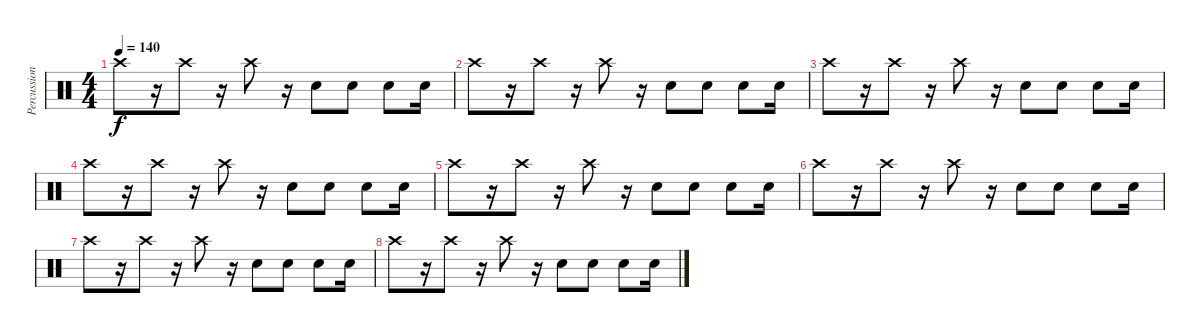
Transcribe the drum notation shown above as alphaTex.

\track ("Percussion" "Percussion") {instrument percussion}
\staff {score}
\articulation defaults
\ts (4 4)
\tempo 140
\clef neutral
\ks c "Crash high (hit)".8{dy f}
r.16 "Crash high (hit)".8 r.16 "Crash high (hit)".8 r.16 "Electric Snare (hit)".8 "Electric Snare (hit)".8 "Electric Snare (hit)".8 "Electric Snare (hit)".16 |
"Crash high (hit)".8 r.16 "Crash high (hit)".8 r.16 "Crash high (hit)".8 r.16 "Electric Snare (hit)".8 "Electric Snare (hit)".8 "Electric Snare (hit)".8 "Electric Snare (hit)".16 |
"Crash high (hit)".8 r.16 "Crash high (hit)".8 r.16 "Crash high (hit)".8 r.16 "Electric Snare (hit)".8 "Electric Snare (hit)".8 "Electric Snare (hit)".8 "Electric Snare (hit)".16 |
"Crash high (hit)".8 r.16 "Crash high (hit)".8 r.16 "Crash high (hit)".8 r.16 "Electric Snare (hit)".8 "Electric Snare (hit)".8 "Electric Snare (hit)".8 "Electric Snare (hit)".16 |
"Crash high (hit)".8 r.16 "Crash high (hit)".8 r.16 "Crash high (hit)".8 r.16 "Electric Snare (hit)".8 "Electric Snare (hit)".8 "Electric Snare (hit)".8 "Electric Snare (hit)".16 |
"Crash high (hit)".8 r.16 "Crash high (hit)".8 r.16 "Crash high (hit)".8 r.16 "Electric Snare (hit)".8 "Electric Snare (hit)".8 "Electric Snare (hit)".8 "Electric Snare (hit)".16 |
"Crash high (hit)".8 r.16 "Crash high (hit)".8 r.16 "Crash high (hit)".8 r.16 "Electric Snare (hit)".8 "Electric Snare (hit)".8 "Electric Snare (hit)".8 "Electric Snare (hit)".16 |
"Crash high (hit)".8 r.16 "Crash high (hit)".8 r.16 "Crash high (hit)".8 r.16 "Electric Snare (hit)".8 "Electric Snare (hit)".8 "Electric Snare (hit)".8 "Electric Snare (hit)".16
